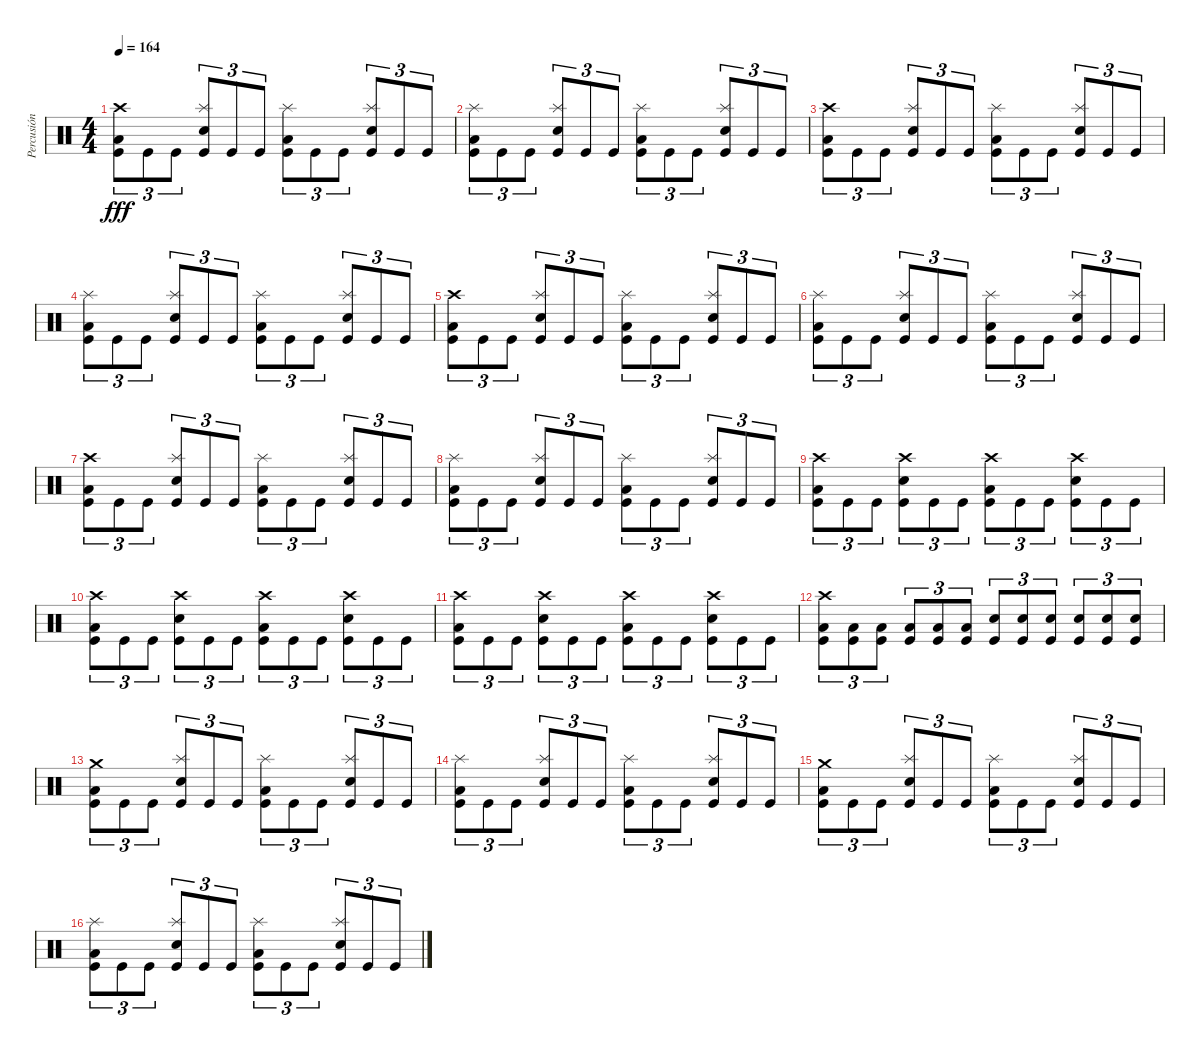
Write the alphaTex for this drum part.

\track ("Percusión" "Percusión") {instrument percussion}
\staff {score}
\articulation defaults
\ts (4 4)
\tempo 164
\clef neutral
\ks c
("Crash high (hit)" "Low Floor Tom (hit)" "Kick (hit)").8{tu (3 2) dy fff} "Kick (hit)".8{tu (3 2)} "Kick (hit)".8{tu (3 2)} ("Splash (hit)" "Snare (hit) 2" "Kick (hit)").8{tu (3 2)} "Kick (hit)".8{tu (3 2)} "Kick (hit)".8{tu (3 2)} ("Splash (hit)" "Low Floor Tom (hit)" "Kick (hit)").8{tu (3 2)} "Kick (hit)".8{tu (3 2)} "Kick (hit)".8{tu (3 2)} ("Splash (hit)" "Snare (hit) 2" "Kick (hit)").8{tu (3 2)} "Kick (hit)".8{tu (3 2)} "Kick (hit)".8{tu (3 2)} |
("Splash (hit)" "Low Floor Tom (hit)" "Kick (hit)").8{tu (3 2)} "Kick (hit)".8{tu (3 2)} "Kick (hit)".8{tu (3 2)} ("Splash (hit)" "Snare (hit) 2" "Kick (hit)").8{tu (3 2)} "Kick (hit)".8{tu (3 2)} "Kick (hit)".8{tu (3 2)} ("Splash (hit)" "Low Floor Tom (hit)" "Kick (hit)").8{tu (3 2)} "Kick (hit)".8{tu (3 2)} "Kick (hit)".8{tu (3 2)} ("Splash (hit)" "Snare (hit) 2" "Kick (hit)").8{tu (3 2)} "Kick (hit)".8{tu (3 2)} "Kick (hit)".8{tu (3 2)} |
("Crash high (hit)" "Low Floor Tom (hit)" "Kick (hit)").8{tu (3 2)} "Kick (hit)".8{tu (3 2)} "Kick (hit)".8{tu (3 2)} ("Splash (hit)" "Snare (hit) 2" "Kick (hit)").8{tu (3 2)} "Kick (hit)".8{tu (3 2)} "Kick (hit)".8{tu (3 2)} ("Splash (hit)" "Low Floor Tom (hit)" "Kick (hit)").8{tu (3 2)} "Kick (hit)".8{tu (3 2)} "Kick (hit)".8{tu (3 2)} ("Splash (hit)" "Snare (hit) 2" "Kick (hit)").8{tu (3 2)} "Kick (hit)".8{tu (3 2)} "Kick (hit)".8{tu (3 2)} |
("Splash (hit)" "Low Floor Tom (hit)" "Kick (hit)").8{tu (3 2)} "Kick (hit)".8{tu (3 2)} "Kick (hit)".8{tu (3 2)} ("Splash (hit)" "Snare (hit) 2" "Kick (hit)").8{tu (3 2)} "Kick (hit)".8{tu (3 2)} "Kick (hit)".8{tu (3 2)} ("Splash (hit)" "Low Floor Tom (hit)" "Kick (hit)").8{tu (3 2)} "Kick (hit)".8{tu (3 2)} "Kick (hit)".8{tu (3 2)} ("Splash (hit)" "Snare (hit) 2" "Kick (hit)").8{tu (3 2)} "Kick (hit)".8{tu (3 2)} "Kick (hit)".8{tu (3 2)} |
("Crash high (hit)" "Low Floor Tom (hit)" "Kick (hit)").8{tu (3 2)} "Kick (hit)".8{tu (3 2)} "Kick (hit)".8{tu (3 2)} ("Splash (hit)" "Snare (hit) 2" "Kick (hit)").8{tu (3 2)} "Kick (hit)".8{tu (3 2)} "Kick (hit)".8{tu (3 2)} ("Splash (hit)" "Low Floor Tom (hit)" "Kick (hit)").8{tu (3 2)} "Kick (hit)".8{tu (3 2)} "Kick (hit)".8{tu (3 2)} ("Splash (hit)" "Snare (hit) 2" "Kick (hit)").8{tu (3 2)} "Kick (hit)".8{tu (3 2)} "Kick (hit)".8{tu (3 2)} |
("Splash (hit)" "Low Floor Tom (hit)" "Kick (hit)").8{tu (3 2)} "Kick (hit)".8{tu (3 2)} "Kick (hit)".8{tu (3 2)} ("Splash (hit)" "Snare (hit) 2" "Kick (hit)").8{tu (3 2)} "Kick (hit)".8{tu (3 2)} "Kick (hit)".8{tu (3 2)} ("Splash (hit)" "Low Floor Tom (hit)" "Kick (hit)").8{tu (3 2)} "Kick (hit)".8{tu (3 2)} "Kick (hit)".8{tu (3 2)} ("Splash (hit)" "Snare (hit) 2" "Kick (hit)").8{tu (3 2)} "Kick (hit)".8{tu (3 2)} "Kick (hit)".8{tu (3 2)} |
("Crash high (hit)" "Low Floor Tom (hit)" "Kick (hit)").8{tu (3 2)} "Kick (hit)".8{tu (3 2)} "Kick (hit)".8{tu (3 2)} ("Splash (hit)" "Snare (hit) 2" "Kick (hit)").8{tu (3 2)} "Kick (hit)".8{tu (3 2)} "Kick (hit)".8{tu (3 2)} ("Splash (hit)" "Low Floor Tom (hit)" "Kick (hit)").8{tu (3 2)} "Kick (hit)".8{tu (3 2)} "Kick (hit)".8{tu (3 2)} ("Splash (hit)" "Snare (hit) 2" "Kick (hit)").8{tu (3 2)} "Kick (hit)".8{tu (3 2)} "Kick (hit)".8{tu (3 2)} |
("Splash (hit)" "Low Floor Tom (hit)" "Kick (hit)").8{tu (3 2)} "Kick (hit)".8{tu (3 2)} "Kick (hit)".8{tu (3 2)} ("Splash (hit)" "Snare (hit) 2" "Kick (hit)").8{tu (3 2)} "Kick (hit)".8{tu (3 2)} "Kick (hit)".8{tu (3 2)} ("Splash (hit)" "Low Floor Tom (hit)" "Kick (hit)").8{tu (3 2)} "Kick (hit)".8{tu (3 2)} "Kick (hit)".8{tu (3 2)} ("Splash (hit)" "Snare (hit) 2" "Kick (hit)").8{tu (3 2)} "Kick (hit)".8{tu (3 2)} "Kick (hit)".8{tu (3 2)} |
("Crash high (hit)" "Low Floor Tom (hit)" "Kick (hit)").8{tu (3 2)} "Kick (hit)".8{tu (3 2)} "Kick (hit)".8{tu (3 2)} ("Crash high (hit)" "Snare (hit) 2" "Kick (hit)").8{tu (3 2)} "Kick (hit)".8{tu (3 2)} "Kick (hit)".8{tu (3 2)} ("Crash high (hit)" "Low Floor Tom (hit)" "Kick (hit)").8{tu (3 2)} "Kick (hit)".8{tu (3 2)} "Kick (hit)".8{tu (3 2)} ("Crash high (hit)" "Snare (hit) 2" "Kick (hit)").8{tu (3 2)} "Kick (hit)".8{tu (3 2)} "Kick (hit)".8{tu (3 2)} |
("Crash high (hit)" "Low Floor Tom (hit)" "Kick (hit)").8{tu (3 2)} "Kick (hit)".8{tu (3 2)} "Kick (hit)".8{tu (3 2)} ("Crash high (hit)" "Snare (hit) 2" "Kick (hit)").8{tu (3 2)} "Kick (hit)".8{tu (3 2)} "Kick (hit)".8{tu (3 2)} ("Crash high (hit)" "Low Floor Tom (hit)" "Kick (hit)").8{tu (3 2)} "Kick (hit)".8{tu (3 2)} "Kick (hit)".8{tu (3 2)} ("Crash high (hit)" "Snare (hit) 2" "Kick (hit)").8{tu (3 2)} "Kick (hit)".8{tu (3 2)} "Kick (hit)".8{tu (3 2)} |
("Crash high (hit)" "Low Floor Tom (hit)" "Kick (hit)").8{tu (3 2)} "Kick (hit)".8{tu (3 2)} "Kick (hit)".8{tu (3 2)} ("Crash high (hit)" "Snare (hit) 2" "Kick (hit)").8{tu (3 2)} "Kick (hit)".8{tu (3 2)} "Kick (hit)".8{tu (3 2)} ("Crash high (hit)" "Low Floor Tom (hit)" "Kick (hit)").8{tu (3 2)} "Kick (hit)".8{tu (3 2)} "Kick (hit)".8{tu (3 2)} ("Crash high (hit)" "Snare (hit) 2" "Kick (hit)").8{tu (3 2)} "Kick (hit)".8{tu (3 2)} "Kick (hit)".8{tu (3 2)} |
("Crash high (hit)" "Low Floor Tom (hit)" "Kick (hit)").8{tu (3 2)} ("Low Floor Tom (hit)" "Kick (hit)").8{tu (3 2)} ("Low Floor Tom (hit)" "Kick (hit)").8{tu (3 2)} ("Low Floor Tom (hit)" "Kick (hit)").8{tu (3 2)} ("Low Floor Tom (hit)" "Kick (hit)").8{tu (3 2)} ("Low Floor Tom (hit)" "Kick (hit)").8{tu (3 2)} ("Snare (hit) 2" "Kick (hit)").8{tu (3 2)} ("Snare (hit) 2" "Kick (hit)").8{tu (3 2)} ("Snare (hit) 2" "Kick (hit)").8{tu (3 2)} ("Snare (hit) 2" "Kick (hit)").8{tu (3 2)} ("Snare (hit) 2" "Kick (hit)").8{tu (3 2)} ("Snare (hit) 2" "Kick (hit)").8{tu (3 2)} |
("Crash medium (hit)" "Low Floor Tom (hit)" "Kick (hit)").8{tu (3 2)} "Kick (hit)".8{tu (3 2)} "Kick (hit)".8{tu (3 2)} ("Splash (hit)" "Snare (hit) 2" "Kick (hit)").8{tu (3 2)} "Kick (hit)".8{tu (3 2)} "Kick (hit)".8{tu (3 2)} ("Splash (hit)" "Low Floor Tom (hit)" "Kick (hit)").8{tu (3 2)} "Kick (hit)".8{tu (3 2)} "Kick (hit)".8{tu (3 2)} ("Splash (hit)" "Snare (hit) 2" "Kick (hit)").8{tu (3 2)} "Kick (hit)".8{tu (3 2)} "Kick (hit)".8{tu (3 2)} |
("Splash (hit)" "Low Floor Tom (hit)" "Kick (hit)").8{tu (3 2)} "Kick (hit)".8{tu (3 2)} "Kick (hit)".8{tu (3 2)} ("Splash (hit)" "Snare (hit) 2" "Kick (hit)").8{tu (3 2)} "Kick (hit)".8{tu (3 2)} "Kick (hit)".8{tu (3 2)} ("Splash (hit)" "Low Floor Tom (hit)" "Kick (hit)").8{tu (3 2)} "Kick (hit)".8{tu (3 2)} "Kick (hit)".8{tu (3 2)} ("Splash (hit)" "Snare (hit) 2" "Kick (hit)").8{tu (3 2)} "Kick (hit)".8{tu (3 2)} "Kick (hit)".8{tu (3 2)} |
("Crash medium (hit)" "Low Floor Tom (hit)" "Kick (hit)").8{tu (3 2)} "Kick (hit)".8{tu (3 2)} "Kick (hit)".8{tu (3 2)} ("Splash (hit)" "Snare (hit) 2" "Kick (hit)").8{tu (3 2)} "Kick (hit)".8{tu (3 2)} "Kick (hit)".8{tu (3 2)} ("Splash (hit)" "Low Floor Tom (hit)" "Kick (hit)").8{tu (3 2)} "Kick (hit)".8{tu (3 2)} "Kick (hit)".8{tu (3 2)} ("Splash (hit)" "Snare (hit) 2" "Kick (hit)").8{tu (3 2)} "Kick (hit)".8{tu (3 2)} "Kick (hit)".8{tu (3 2)} |
("Splash (hit)" "Low Floor Tom (hit)" "Kick (hit)").8{tu (3 2)} "Kick (hit)".8{tu (3 2)} "Kick (hit)".8{tu (3 2)} ("Splash (hit)" "Snare (hit) 2" "Kick (hit)").8{tu (3 2)} "Kick (hit)".8{tu (3 2)} "Kick (hit)".8{tu (3 2)} ("Splash (hit)" "Low Floor Tom (hit)" "Kick (hit)").8{tu (3 2)} "Kick (hit)".8{tu (3 2)} "Kick (hit)".8{tu (3 2)} ("Splash (hit)" "Snare (hit) 2" "Kick (hit)").8{tu (3 2)} "Kick (hit)".8{tu (3 2)} "Kick (hit)".8{tu (3 2)}
